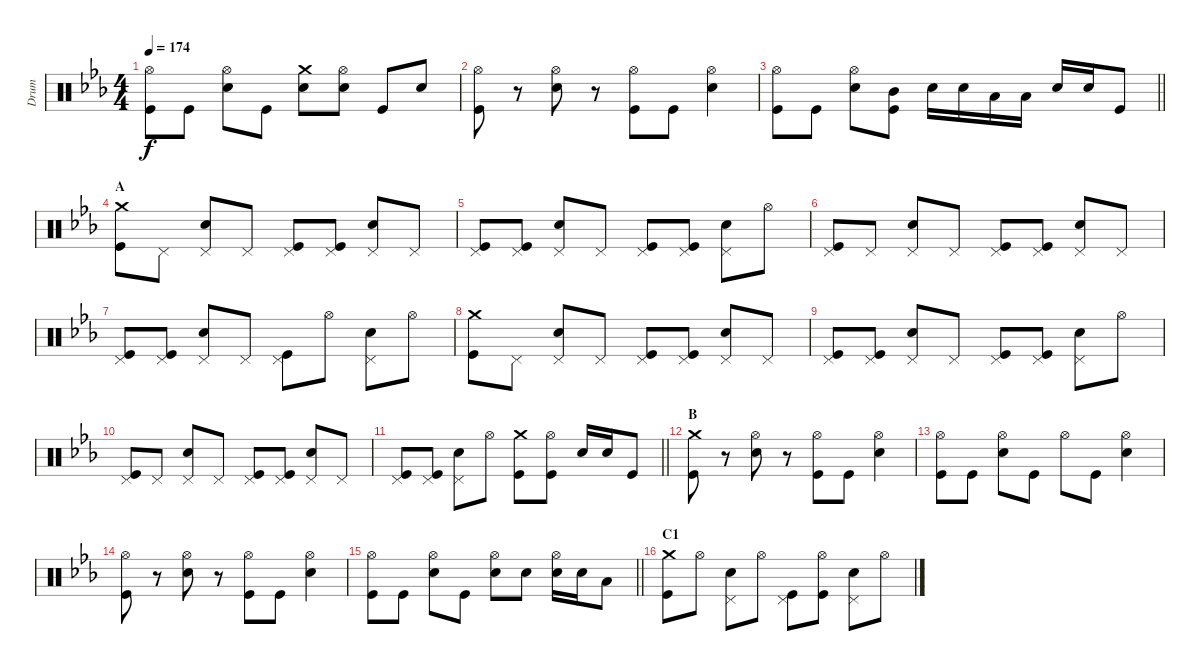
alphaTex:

\track ("Drum" "Drum") {instrument percussion}
\staff {score}
\articulation defaults
\ts (4 4)
\tempo 174
\clef neutral
\ks eb
("Hi-Hat (open)" "Kick (hit)").8{dy f} "Kick (hit)".8 ("Hi-Hat (open)" "Snare (hit) 2").8 "Kick (hit)".8 ("Crash medium (hit)" "Snare (hit) 2").8 ("Hi-Hat (open)" "Snare (hit) 2").8 "Kick (hit)".8 "Snare (hit) 2".8 |
("Hi-Hat (open)" "Kick (hit)").8 r.8 ("Hi-Hat (open)" "Snare (hit) 2").8 r.8 ("Hi-Hat (open)" "Kick (hit)").8 "Kick (hit)".8 ("Hi-Hat (open)" "Snare (hit) 2").4 |
\barLineRight lightlight
("Hi-Hat (open)" "Kick (hit)").8 "Kick (hit)".8 ("Hi-Hat (open)" "Snare (hit) 2").8 ("Mid Tom (hit)" "Kick (hit)").8 "Snare (hit) 2".16 "Snare (hit) 2".16 "Low Tom (hit)".16 "Low Tom (hit)".16 "Snare (hit) 2".16 "Snare (hit) 2".16 "Kick (hit)".8 |
\section ("" "A")
("Crash medium (hit)" "Kick (hit)").8 "Pedal Hi-Hat (hit)".8 ("Pedal Hi-Hat (hit)" "Snare (hit) 2").8 "Pedal Hi-Hat (hit)".8 ("Pedal Hi-Hat (hit)" "Kick (hit)").8 ("Pedal Hi-Hat (hit)" "Kick (hit)").8 ("Pedal Hi-Hat (hit)" "Snare (hit) 2").8 "Pedal Hi-Hat (hit)".8 |
("Pedal Hi-Hat (hit)" "Kick (hit)").8 ("Pedal Hi-Hat (hit)" "Kick (hit)").8 ("Pedal Hi-Hat (hit)" "Snare (hit) 2").8 "Pedal Hi-Hat (hit)".8 ("Pedal Hi-Hat (hit)" "Kick (hit)").8 ("Pedal Hi-Hat (hit)" "Kick (hit)").8 ("Pedal Hi-Hat (hit)" "Snare (hit) 2").8 "Hi-Hat (open)".8 |
("Pedal Hi-Hat (hit)" "Kick (hit)").8 "Pedal Hi-Hat (hit)".8 ("Pedal Hi-Hat (hit)" "Snare (hit) 2").8 "Pedal Hi-Hat (hit)".8 ("Pedal Hi-Hat (hit)" "Kick (hit)").8 ("Pedal Hi-Hat (hit)" "Kick (hit)").8 ("Pedal Hi-Hat (hit)" "Snare (hit) 2").8 "Pedal Hi-Hat (hit)".8 |
("Pedal Hi-Hat (hit)" "Kick (hit)").8 ("Pedal Hi-Hat (hit)" "Kick (hit)").8 ("Pedal Hi-Hat (hit)" "Snare (hit) 2").8 "Pedal Hi-Hat (hit)".8 ("Pedal Hi-Hat (hit)" "Kick (hit)").8 "Hi-Hat (open)".8 ("Pedal Hi-Hat (hit)" "Snare (hit) 2").8 "Hi-Hat (open)".8 |
("Crash medium (hit)" "Kick (hit)").8 "Pedal Hi-Hat (hit)".8 ("Pedal Hi-Hat (hit)" "Snare (hit) 2").8 "Pedal Hi-Hat (hit)".8 ("Pedal Hi-Hat (hit)" "Kick (hit)").8 ("Pedal Hi-Hat (hit)" "Kick (hit)").8 ("Pedal Hi-Hat (hit)" "Snare (hit) 2").8 "Pedal Hi-Hat (hit)".8 |
("Pedal Hi-Hat (hit)" "Kick (hit)").8 ("Pedal Hi-Hat (hit)" "Kick (hit)").8 ("Pedal Hi-Hat (hit)" "Snare (hit) 2").8 "Pedal Hi-Hat (hit)".8 ("Pedal Hi-Hat (hit)" "Kick (hit)").8 ("Pedal Hi-Hat (hit)" "Kick (hit)").8 ("Pedal Hi-Hat (hit)" "Snare (hit) 2").8 "Hi-Hat (open)".8 |
("Pedal Hi-Hat (hit)" "Kick (hit)").8 "Pedal Hi-Hat (hit)".8 ("Pedal Hi-Hat (hit)" "Snare (hit) 2").8 "Pedal Hi-Hat (hit)".8 ("Pedal Hi-Hat (hit)" "Kick (hit)").8 ("Pedal Hi-Hat (hit)" "Kick (hit)").8 ("Pedal Hi-Hat (hit)" "Snare (hit) 2").8 "Pedal Hi-Hat (hit)".8 |
\barLineRight lightlight
("Pedal Hi-Hat (hit)" "Kick (hit)").8 ("Pedal Hi-Hat (hit)" "Kick (hit)").8 ("Pedal Hi-Hat (hit)" "Snare (hit) 2").8 "Hi-Hat (open)".8 ("Crash medium (hit)" "Kick (hit)").8 ("Hi-Hat (open)" "Kick (hit)").8 "Snare (hit) 2".16 "Snare (hit) 2".16 "Kick (hit)".8 |
\section ("" "B")
("Crash medium (hit)" "Kick (hit)").8 r.8 ("Hi-Hat (open)" "Snare (hit) 2").8 r.8 ("Hi-Hat (open)" "Kick (hit)").8 "Kick (hit)".8 ("Hi-Hat (open)" "Snare (hit) 2").4 |
("Hi-Hat (open)" "Kick (hit)").8 "Kick (hit)".8 ("Hi-Hat (open)" "Snare (hit) 2").8 "Kick (hit)".8 "Hi-Hat (open)".8 "Kick (hit)".8 ("Hi-Hat (open)" "Snare (hit) 2").4 |
("Hi-Hat (open)" "Kick (hit)").8 r.8 ("Hi-Hat (open)" "Snare (hit) 2").8 r.8 ("Hi-Hat (open)" "Kick (hit)").8 "Kick (hit)".8 ("Hi-Hat (open)" "Snare (hit) 2").4 |
\barLineRight lightlight
("Hi-Hat (open)" "Kick (hit)").8 "Kick (hit)".8 ("Hi-Hat (open)" "Snare (hit) 2").8 "Kick (hit)".8 ("Hi-Hat (open)" "Snare (hit) 2").8 "Snare (hit) 2".8 ("Hi-Hat (open)" "Snare (hit) 2").16 "Snare (hit) 2".16 "Low Tom (hit)".8 |
\section ("" "C1")
("Crash medium (hit)" "Kick (hit)").8 "Hi-Hat (open)".8 ("Pedal Hi-Hat (hit)" "Snare (hit) 2").8 "Hi-Hat (open)".8 ("Pedal Hi-Hat (hit)" "Kick (hit)").8 ("Hi-Hat (open)" "Kick (hit)").8 ("Pedal Hi-Hat (hit)" "Snare (hit) 2").8 "Hi-Hat (open)".8
